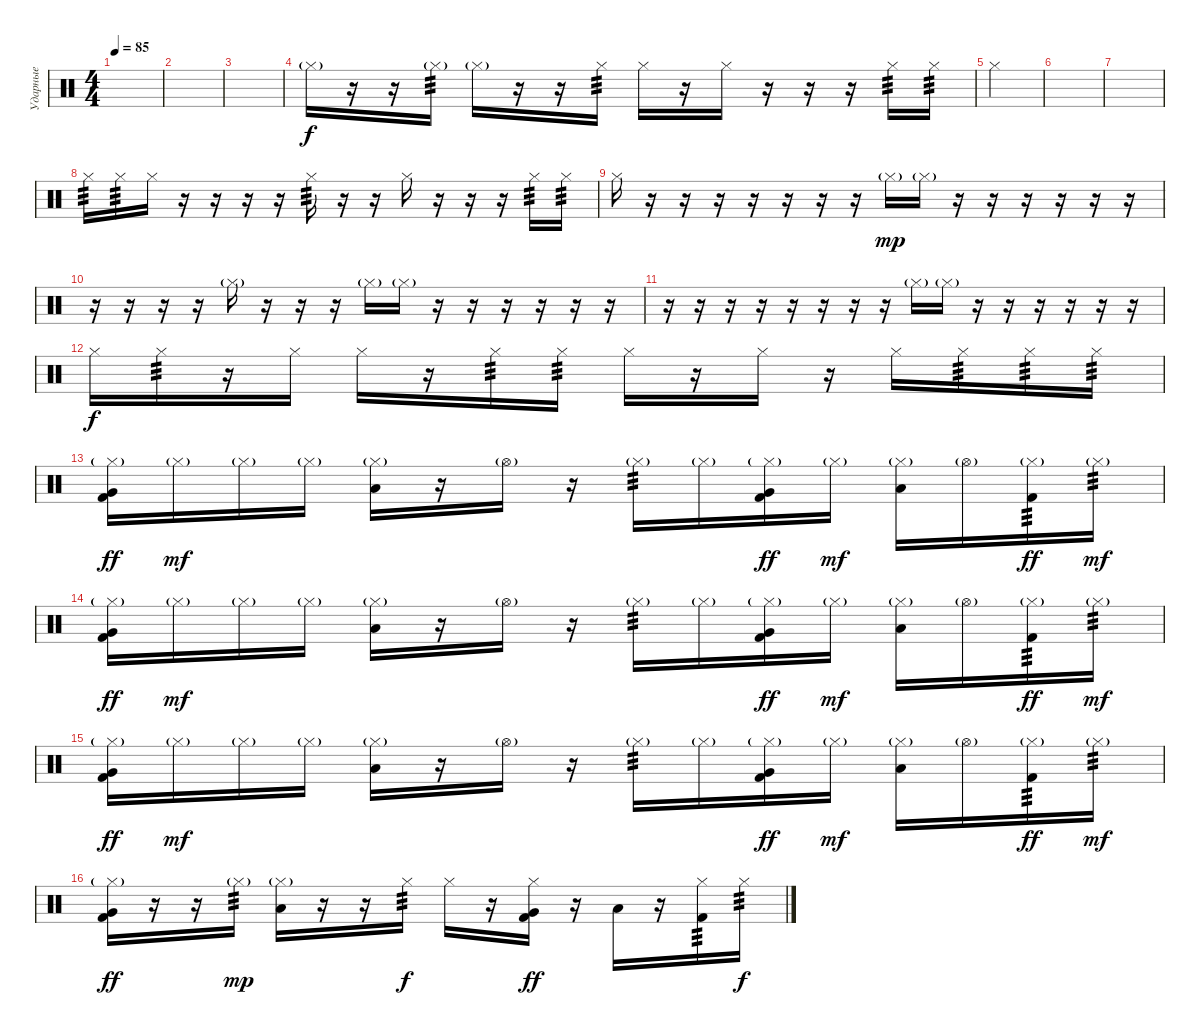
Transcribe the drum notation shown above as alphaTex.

\track ("Ударные" "Ударные") {instrument percussion}
\staff {score}
\articulation defaults
\ts (4 4)
\tempo 85
\clef neutral
\ks c
|
|
|
"Hi-Hat (closed)"{g}.16 r.16 r.16 "Hi-Hat (closed)"{g}.16{tp 3} "Hi-Hat (closed)"{g}.16 r.16 r.16 "Hi-Hat (closed)".16{tp 3 dy f} "Hi-Hat (closed)".16 r.16 "Hi-Hat (closed)".16 r.16 r.16 r.16 "Hi-Hat (closed)".16{tp 3} "Hi-Hat (closed)".16{tp 3} |
"Hi-Hat (closed)".4 |
|
|
"Hi-Hat (closed)".16{tp 3} "Hi-Hat (closed)".16{tp 3} "Hi-Hat (closed)".16 r.16 r.16 r.16 r.16 "Hi-Hat (closed)".16{tp 3} r.16 r.16 "Hi-Hat (closed)".16 r.16 r.16 r.16 "Hi-Hat (closed)".16{tp 3} "Hi-Hat (closed)".16{tp 3} |
"Hi-Hat (closed)".16 r.16 r.16 r.16 r.16 r.16 r.16 r.16 "Hi-Hat (closed)"{g}.16{dy mp} "Hi-Hat (closed)"{g}.16 r.16 r.16 r.16 r.16 r.16 r.16 |
r.16 r.16 r.16 r.16 "Hi-Hat (closed)"{g}.16 r.16 r.16 r.16 "Hi-Hat (closed)"{g}.16 "Hi-Hat (closed)"{g}.16 r.16 r.16 r.16 r.16 r.16 r.16 |
r.16 r.16 r.16 r.16 r.16 r.16 r.16 r.16 "Hi-Hat (closed)"{g}.16 "Hi-Hat (closed)"{g}.16 r.16 r.16 r.16 r.16 r.16 r.16 |
"Hi-Hat (closed)".16{dy f} "Hi-Hat (closed)".16{tp 3} r.16 "Hi-Hat (closed)".16 "Hi-Hat (closed)".16 r.16 "Hi-Hat (closed)".16{tp 3} "Hi-Hat (closed)".16{tp 3} "Hi-Hat (closed)".16 r.16 "Hi-Hat (closed)".16 r.16 "Hi-Hat (closed)".16 "Hi-Hat (closed)".16{tp 3} "Hi-Hat (closed)".16{tp 3} "Hi-Hat (closed)".16{tp 3} |
("Very Low Tom (hit)" "Hi-Hat (closed)"{g} "Kick (hit) 2").16{dy ff} "Hi-Hat (closed)"{g}.16{dy mf} "Hi-Hat (closed)"{g}.16 "Hi-Hat (closed)"{g}.16 ("Low Tom (hit)" "Hi-Hat (closed)"{g}).16 r.16 "Hi-Hat (open)"{g}.16 r.16 "Hi-Hat (closed)"{g}.16{tp 3} "Hi-Hat (closed)"{g}.16 ("Very Low Tom (hit)" "Hi-Hat (closed)"{g} "Kick (hit) 2").16{dy ff} "Hi-Hat (closed)"{g}.16{dy mf} ("Low Tom (hit)" "Hi-Hat (closed)"{g}).16 "Hi-Hat (open)"{g}.16 ("Hi-Hat (closed)"{g} "Kick (hit) 2").16{tp 3 dy ff} "Hi-Hat (closed)"{g}.16{tp 3 dy mf} |
("Very Low Tom (hit)" "Hi-Hat (closed)"{g} "Kick (hit) 2").16{dy ff} "Hi-Hat (closed)"{g}.16{dy mf} "Hi-Hat (closed)"{g}.16 "Hi-Hat (closed)"{g}.16 ("Low Tom (hit)" "Hi-Hat (closed)"{g}).16 r.16 "Hi-Hat (open)"{g}.16 r.16 "Hi-Hat (closed)"{g}.16{tp 3} "Hi-Hat (closed)"{g}.16 ("Very Low Tom (hit)" "Hi-Hat (closed)"{g} "Kick (hit) 2").16{dy ff} "Hi-Hat (closed)"{g}.16{dy mf} ("Low Tom (hit)" "Hi-Hat (closed)"{g}).16 "Hi-Hat (open)"{g}.16 ("Hi-Hat (closed)"{g} "Kick (hit) 2").16{tp 3 dy ff} "Hi-Hat (closed)"{g}.16{tp 3 dy mf} |
("Very Low Tom (hit)" "Hi-Hat (closed)"{g} "Kick (hit) 2").16{dy ff} "Hi-Hat (closed)"{g}.16{dy mf} "Hi-Hat (closed)"{g}.16 "Hi-Hat (closed)"{g}.16 ("Low Tom (hit)" "Hi-Hat (closed)"{g}).16 r.16 "Hi-Hat (open)"{g}.16 r.16 "Hi-Hat (closed)"{g}.16{tp 3} "Hi-Hat (closed)"{g}.16 ("Very Low Tom (hit)" "Hi-Hat (closed)"{g} "Kick (hit) 2").16{dy ff} "Hi-Hat (closed)"{g}.16{dy mf} ("Low Tom (hit)" "Hi-Hat (closed)"{g}).16 "Hi-Hat (open)"{g}.16 ("Hi-Hat (closed)"{g} "Kick (hit) 2").16{tp 3 dy ff} "Hi-Hat (closed)"{g}.16{tp 3 dy mf} |
("Very Low Tom (hit)" "Hi-Hat (closed)"{g} "Kick (hit) 2").16{dy ff} r.16 r.16 "Hi-Hat (closed)"{g}.16{tp 3 dy mp} ("Low Tom (hit)" "Hi-Hat (closed)"{g}).16 r.16 r.16 "Hi-Hat (closed)".16{tp 3 dy f} "Hi-Hat (closed)".16 r.16 ("Very Low Tom (hit)" "Hi-Hat (closed)" "Kick (hit) 2").16{dy ff} r.16 "Low Tom (hit)".16 r.16 ("Hi-Hat (closed)" "Kick (hit) 2").16{tp 3} "Hi-Hat (closed)".16{tp 3 dy f}
